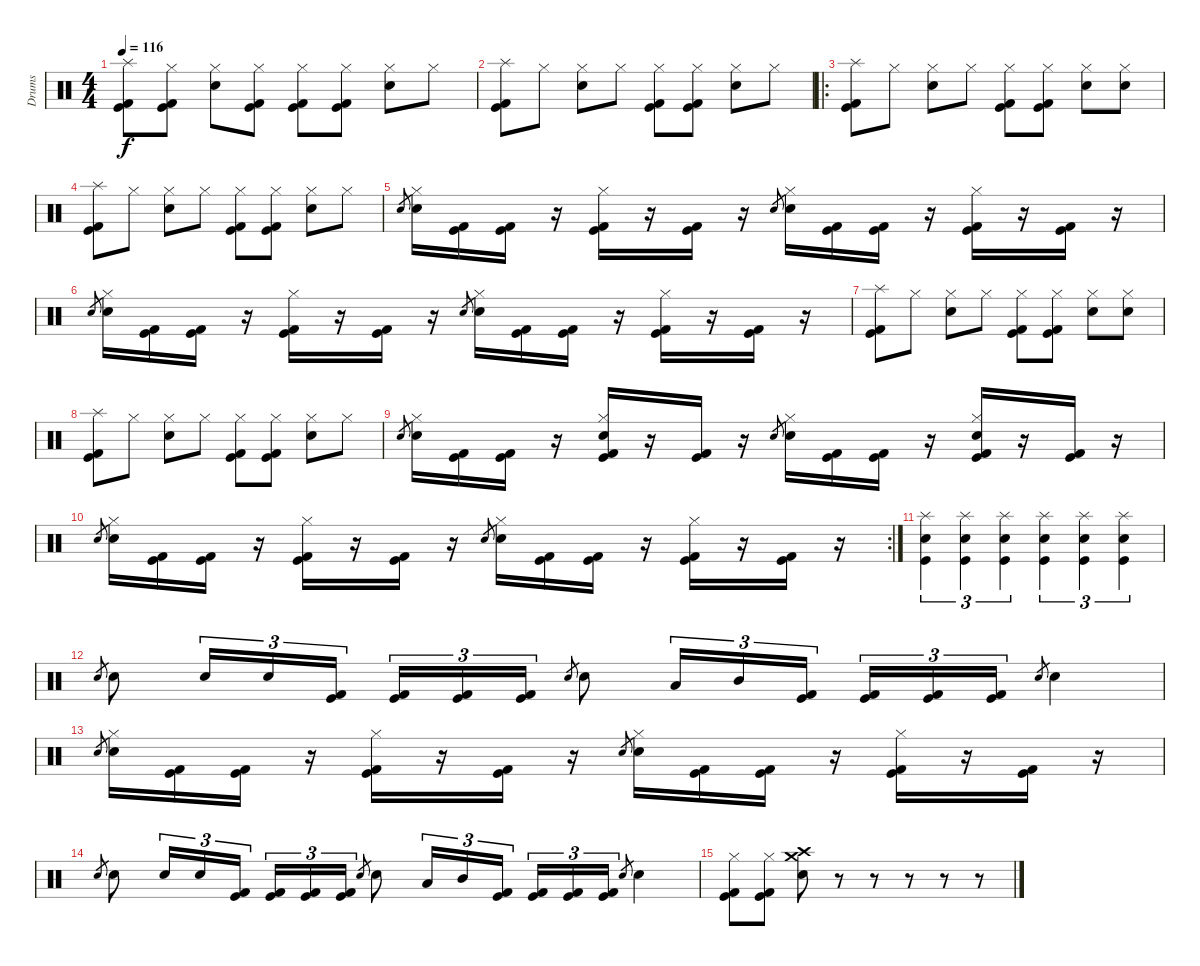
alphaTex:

\track ("Drums" "Drums") {instrument percussion}
\staff {score}
\articulation defaults
\ts (4 4)
\tempo 116
\clef neutral
\ks c
("Splash (hit)" "Kick (hit) 2" "Kick (hit)").8{dy f} ("Hi-Hat (closed)" "Kick (hit) 2" "Kick (hit)").8 ("Hi-Hat (closed)" "Electric Snare (hit)").8 ("Hi-Hat (closed)" "Kick (hit) 2" "Kick (hit)").8 ("Hi-Hat (closed)" "Kick (hit) 2" "Kick (hit)").8 ("Hi-Hat (closed)" "Kick (hit) 2" "Kick (hit)").8 ("Hi-Hat (closed)" "Electric Snare (hit)").8 "Hi-Hat (closed)".8 |
("Splash (hit)" "Kick (hit) 2" "Kick (hit)").8 "Hi-Hat (closed)".8 ("Hi-Hat (closed)" "Electric Snare (hit)").8 "Hi-Hat (closed)".8 ("Hi-Hat (closed)" "Kick (hit) 2" "Kick (hit)").8 ("Hi-Hat (closed)" "Kick (hit) 2" "Kick (hit)").8 ("Hi-Hat (closed)" "Electric Snare (hit)").8 "Hi-Hat (closed)".8 |
\ro
("Splash (hit)" "Kick (hit) 2" "Kick (hit)").8 "Hi-Hat (closed)".8 ("Hi-Hat (closed)" "Electric Snare (hit)").8 "Hi-Hat (closed)".8 ("Hi-Hat (closed)" "Kick (hit) 2" "Kick (hit)").8 ("Hi-Hat (closed)" "Kick (hit) 2" "Kick (hit)").8 ("Hi-Hat (closed)" "Electric Snare (hit)").8 ("Hi-Hat (closed)" "Electric Snare (hit)").8 |
("Splash (hit)" "Kick (hit) 2" "Kick (hit)").8 "Hi-Hat (closed)".8 ("Hi-Hat (closed)" "Electric Snare (hit)").8 "Hi-Hat (closed)".8 ("Hi-Hat (closed)" "Kick (hit) 2" "Kick (hit)").8 ("Hi-Hat (closed)" "Kick (hit) 2" "Kick (hit)").8 ("Hi-Hat (closed)" "Electric Snare (hit)").8 "Hi-Hat (closed)".8 |
"Electric Snare (hit)".8{gr} ("Hi-Hat (closed)" "Electric Snare (hit)").16 ("Kick (hit) 2" "Kick (hit)").16 ("Kick (hit) 2" "Kick (hit)").16 r.16 ("Hi-Hat (closed)" "Kick (hit) 2" "Kick (hit)").16 r.16 ("Kick (hit) 2" "Kick (hit)").16 r.16 "Electric Snare (hit)".8{gr} ("Hi-Hat (closed)" "Electric Snare (hit)").16 ("Kick (hit) 2" "Kick (hit)").16 ("Kick (hit) 2" "Kick (hit)").16 r.16 ("Hi-Hat (closed)" "Kick (hit) 2" "Kick (hit)").16 r.16 ("Kick (hit) 2" "Kick (hit)").16 r.16 |
"Electric Snare (hit)".8{gr} ("Hi-Hat (closed)" "Electric Snare (hit)").16 ("Kick (hit) 2" "Kick (hit)").16 ("Kick (hit) 2" "Kick (hit)").16 r.16 ("Hi-Hat (closed)" "Kick (hit) 2" "Kick (hit)").16 r.16 ("Kick (hit) 2" "Kick (hit)").16 r.16 "Electric Snare (hit)".8{gr} ("Hi-Hat (closed)" "Electric Snare (hit)").16 ("Kick (hit) 2" "Kick (hit)").16 ("Kick (hit) 2" "Kick (hit)").16 r.16 ("Hi-Hat (closed)" "Kick (hit) 2" "Kick (hit)").16 r.16 ("Kick (hit) 2" "Kick (hit)").16 r.16 |
("Splash (hit)" "Kick (hit) 2" "Kick (hit)").8 "Hi-Hat (closed)".8 ("Hi-Hat (closed)" "Electric Snare (hit)").8 "Hi-Hat (closed)".8 ("Hi-Hat (closed)" "Kick (hit) 2" "Kick (hit)").8 ("Hi-Hat (closed)" "Kick (hit) 2" "Kick (hit)").8 ("Hi-Hat (closed)" "Electric Snare (hit)").8 ("Hi-Hat (closed)" "Electric Snare (hit)").8 |
("Splash (hit)" "Kick (hit) 2" "Kick (hit)").8 "Hi-Hat (closed)".8 ("Hi-Hat (closed)" "Electric Snare (hit)").8 "Hi-Hat (closed)".8 ("Hi-Hat (closed)" "Kick (hit) 2" "Kick (hit)").8 ("Hi-Hat (closed)" "Kick (hit) 2" "Kick (hit)").8 ("Hi-Hat (closed)" "Electric Snare (hit)").8 "Hi-Hat (closed)".8 |
"Electric Snare (hit)".8{gr} ("Hi-Hat (closed)" "Electric Snare (hit)").16 ("Kick (hit) 2" "Kick (hit)").16 ("Kick (hit) 2" "Kick (hit)").16 r.16 ("Hi-Hat (closed)" "Electric Snare (hit)" "Kick (hit) 2" "Kick (hit)").16 r.16 ("Kick (hit) 2" "Kick (hit)").16 r.16 "Electric Snare (hit)".8{gr} ("Hi-Hat (closed)" "Electric Snare (hit)").16 ("Kick (hit) 2" "Kick (hit)").16 ("Kick (hit) 2" "Kick (hit)").16 r.16 ("Hi-Hat (closed)" "Electric Snare (hit)" "Kick (hit) 2" "Kick (hit)").16 r.16 ("Kick (hit) 2" "Kick (hit)").16 r.16 |
\rc 2 "Electric Snare (hit)".8{gr}
("Hi-Hat (closed)" "Electric Snare (hit)").16 ("Kick (hit) 2" "Kick (hit)").16 ("Kick (hit) 2" "Kick (hit)").16 r.16 ("Hi-Hat (closed)" "Kick (hit) 2" "Kick (hit)").16 r.16 ("Kick (hit) 2" "Kick (hit)").16 r.16 "Electric Snare (hit)".8{gr} ("Hi-Hat (closed)" "Electric Snare (hit)").16 ("Kick (hit) 2" "Kick (hit)").16 ("Kick (hit) 2" "Kick (hit)").16 r.16 ("Hi-Hat (closed)" "Kick (hit) 2" "Kick (hit)").16 r.16 ("Kick (hit) 2" "Kick (hit)").16 r.16 |
("Splash (hit)" "Electric Snare (hit)" "Kick (hit)").4{tu (3 2)} ("Splash (hit)" "Electric Snare (hit)" "Kick (hit)").4{tu (3 2)} ("Splash (hit)" "Electric Snare (hit)" "Kick (hit)").4{tu (3 2)} ("Splash (hit)" "Electric Snare (hit)" "Kick (hit)").4{tu (3 2)} ("Splash (hit)" "Electric Snare (hit)" "Kick (hit)").4{tu (3 2)} ("Splash (hit)" "Electric Snare (hit)" "Kick (hit)").4{tu (3 2)} |
"Electric Snare (hit)".8{gr} "Electric Snare (hit)".8 "Electric Snare (hit)".16{tu (3 2)} "Electric Snare (hit)".16{tu (3 2)} ("Kick (hit) 2" "Kick (hit)").16{tu (3 2)} ("Kick (hit) 2" "Kick (hit)").16{tu (3 2)} ("Kick (hit) 2" "Kick (hit)").16{tu (3 2)} ("Kick (hit) 2" "Kick (hit)").16{tu (3 2)} "Electric Snare (hit)".8{gr} "Electric Snare (hit)".8 "Low Tom (hit)".16{tu (3 2)} "Mid Tom (hit)".16{tu (3 2)} ("Kick (hit) 2" "Kick (hit)").16{tu (3 2)} ("Kick (hit) 2" "Kick (hit)").16{tu (3 2)} ("Kick (hit) 2" "Kick (hit)").16{tu (3 2)} ("Kick (hit) 2" "Kick (hit)").16{tu (3 2)} "Electric Snare (hit)".8{gr} "Electric Snare (hit)".4 |
"Electric Snare (hit)".8{gr} ("Hi-Hat (closed)" "Electric Snare (hit)").16 ("Kick (hit) 2" "Kick (hit)").16 ("Kick (hit) 2" "Kick (hit)").16 r.16 ("Hi-Hat (closed)" "Kick (hit) 2" "Kick (hit)").16 r.16 ("Kick (hit) 2" "Kick (hit)").16 r.16 "Electric Snare (hit)".8{gr} ("Hi-Hat (closed)" "Electric Snare (hit)").16 ("Kick (hit) 2" "Kick (hit)").16 ("Kick (hit) 2" "Kick (hit)").16 r.16 ("Hi-Hat (closed)" "Kick (hit) 2" "Kick (hit)").16 r.16 ("Kick (hit) 2" "Kick (hit)").16 r.16 |
"Electric Snare (hit)".8{gr} "Electric Snare (hit)".8 "Electric Snare (hit)".16{tu (3 2)} "Electric Snare (hit)".16{tu (3 2)} ("Kick (hit) 2" "Kick (hit)").16{tu (3 2)} ("Kick (hit) 2" "Kick (hit)").16{tu (3 2)} ("Kick (hit) 2" "Kick (hit)").16{tu (3 2)} ("Kick (hit) 2" "Kick (hit)").16{tu (3 2)} "Electric Snare (hit)".8{gr} "Electric Snare (hit)".8 "Low Tom (hit)".16{tu (3 2)} "Mid Tom (hit)".16{tu (3 2)} ("Kick (hit) 2" "Kick (hit)").16{tu (3 2)} ("Kick (hit) 2" "Kick (hit)").16{tu (3 2)} ("Kick (hit) 2" "Kick (hit)").16{tu (3 2)} ("Kick (hit) 2" "Kick (hit)").16{tu (3 2)} "Electric Snare (hit)".8{gr} "Electric Snare (hit)".4 |
("Hi-Hat (closed)" "Kick (hit) 2" "Kick (hit)").8 ("Hi-Hat (closed)" "Kick (hit) 2" "Kick (hit)").8 ("Crash medium (hit)" "Crash high (hit)" "Electric Snare (hit)").8 r.8 r.8 r.8 r.8 r.8
